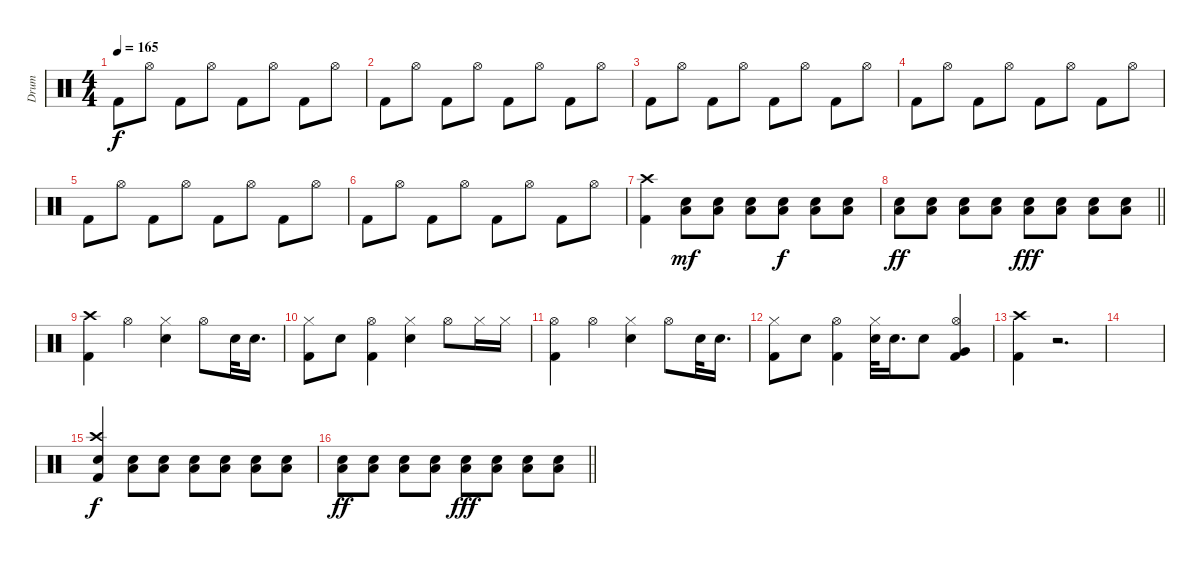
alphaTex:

\track ("Drum" "Drum") {instrument percussion}
\staff {score}
\articulation defaults
\ts (4 4)
\tempo 165
\clef neutral
\ks c "Kick (hit) 2".8{dy f} "Hi-Hat (open)".8 "Kick (hit) 2".8 "Hi-Hat (open)".8 "Kick (hit) 2".8 "Hi-Hat (open)".8 "Kick (hit) 2".8 "Hi-Hat (open)".8
|
"Kick (hit) 2".8 "Hi-Hat (open)".8 "Kick (hit) 2".8 "Hi-Hat (open)".8 "Kick (hit) 2".8 "Hi-Hat (open)".8 "Kick (hit) 2".8 "Hi-Hat (open)".8 |
"Kick (hit) 2".8 "Hi-Hat (open)".8 "Kick (hit) 2".8 "Hi-Hat (open)".8 "Kick (hit) 2".8 "Hi-Hat (open)".8 "Kick (hit) 2".8 "Hi-Hat (open)".8 |
"Kick (hit) 2".8 "Hi-Hat (open)".8 "Kick (hit) 2".8 "Hi-Hat (open)".8 "Kick (hit) 2".8 "Hi-Hat (open)".8 "Kick (hit) 2".8 "Hi-Hat (open)".8 |
"Kick (hit) 2".8 "Hi-Hat (open)".8 "Kick (hit) 2".8 "Hi-Hat (open)".8 "Kick (hit) 2".8 "Hi-Hat (open)".8 "Kick (hit) 2".8 "Hi-Hat (open)".8 |
"Kick (hit) 2".8 "Hi-Hat (open)".8 "Kick (hit) 2".8 "Hi-Hat (open)".8 "Kick (hit) 2".8 "Hi-Hat (open)".8 "Kick (hit) 2".8 "Hi-Hat (open)".8 |
("Crash high (hit)" "Kick (hit) 2").4 ("Electric Snare (hit)" "Low Tom (hit)").8{dy mf} ("Electric Snare (hit)" "Low Tom (hit)").8 ("Electric Snare (hit)" "Low Tom (hit)").8 ("Electric Snare (hit)" "Low Tom (hit)").8{dy f} ("Electric Snare (hit)" "Low Tom (hit)").8 ("Electric Snare (hit)" "Low Tom (hit)").8 |
\barLineRight lightlight
("Electric Snare (hit)" "Low Tom (hit)").8{dy ff} ("Electric Snare (hit)" "Low Tom (hit)").8 ("Electric Snare (hit)" "Low Tom (hit)").8 ("Electric Snare (hit)" "Low Tom (hit)").8 ("Electric Snare (hit)" "Low Tom (hit)").8{dy fff} ("Electric Snare (hit)" "Low Tom (hit)").8 ("Electric Snare (hit)" "Low Tom (hit)").8 ("Electric Snare (hit)" "Low Tom (hit)").8 |
("Crash high (hit)" "Kick (hit) 2").4 "Hi-Hat (open)".4 ("Hi-Hat (closed)" "Electric Snare (hit)").4 "Hi-Hat (open)".8 "Electric Snare (hit)".32 "Electric Snare (hit)".16{d} |
("Hi-Hat (closed)" "Kick (hit) 2").8 "Electric Snare (hit)".8 ("Hi-Hat (open)" "Kick (hit) 2").4 ("Hi-Hat (closed)" "Electric Snare (hit)").4 "Hi-Hat (open)".8 "Hi-Hat (closed)".16 "Hi-Hat (closed)".16 |
("Hi-Hat (open)" "Kick (hit) 2").4 "Hi-Hat (open)".4 ("Hi-Hat (closed)" "Electric Snare (hit)").4 "Hi-Hat (open)".8 "Electric Snare (hit)".32 "Electric Snare (hit)".16{d} |
("Hi-Hat (closed)" "Kick (hit) 2").8 "Electric Snare (hit)".8 ("Hi-Hat (open)" "Kick (hit) 2").4 ("Hi-Hat (closed)" "Electric Snare (hit)").32 "Electric Snare (hit)".16{d} "Electric Snare (hit)".8 ("Hi-Hat (open)" "Very Low Tom (hit)" "Kick (hit) 2").4 |
("Crash high (hit)" "Kick (hit) 2").4 r.2{d} |
|
("Crash high (hit)" "Electric Snare (hit)" "Kick (hit) 2").4{dy f} ("Electric Snare (hit)" "Low Tom (hit)").8 ("Electric Snare (hit)" "Low Tom (hit)").8 ("Electric Snare (hit)" "Low Tom (hit)").8 ("Electric Snare (hit)" "Low Tom (hit)").8 ("Electric Snare (hit)" "Low Tom (hit)").8 ("Electric Snare (hit)" "Low Tom (hit)").8 |
\barLineRight lightlight
("Electric Snare (hit)" "Low Tom (hit)").8{dy ff} ("Electric Snare (hit)" "Low Tom (hit)").8 ("Electric Snare (hit)" "Low Tom (hit)").8 ("Electric Snare (hit)" "Low Tom (hit)").8 ("Electric Snare (hit)" "Low Tom (hit)").8{dy fff} ("Electric Snare (hit)" "Low Tom (hit)").8 ("Electric Snare (hit)" "Low Tom (hit)").8 ("Electric Snare (hit)" "Low Tom (hit)").8
